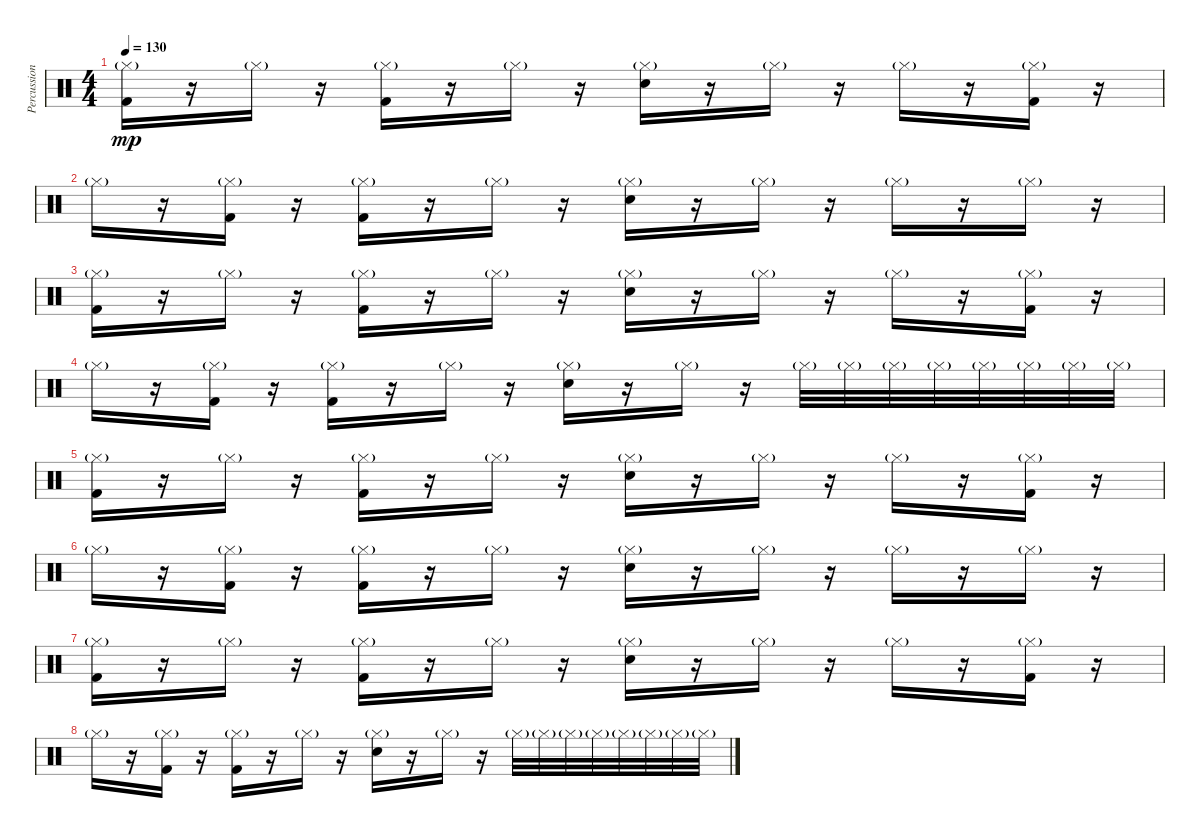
\track ("Percussion" "Percussion") {instrument percussion}
\staff {score}
\articulation defaults
\ts (4 4)
\tempo 130
\clef neutral
\ks c
("Hi-Hat (closed)"{g} "Kick (hit) 2").16{dy mp} r.16 "Hi-Hat (closed)"{g}.16 r.16 ("Hi-Hat (closed)"{g} "Kick (hit) 2").16 r.16 "Hi-Hat (closed)"{g}.16 r.16 ("Hi-Hat (closed)"{g} "Snare (hit) 2").16 r.16 "Hi-Hat (closed)"{g}.16 r.16 "Hi-Hat (closed)"{g}.16 r.16 ("Hi-Hat (closed)"{g} "Kick (hit) 2").16 r.16 |
"Hi-Hat (closed)"{g}.16 r.16 ("Hi-Hat (closed)"{g} "Kick (hit) 2").16 r.16 ("Hi-Hat (closed)"{g} "Kick (hit) 2").16 r.16 "Hi-Hat (closed)"{g}.16 r.16 ("Hi-Hat (closed)"{g} "Snare (hit) 2").16 r.16 "Hi-Hat (closed)"{g}.16 r.16 "Hi-Hat (closed)"{g}.16 r.16 "Hi-Hat (closed)"{g}.16 r.16 |
("Hi-Hat (closed)"{g} "Kick (hit) 2").16 r.16 "Hi-Hat (closed)"{g}.16 r.16 ("Hi-Hat (closed)"{g} "Kick (hit) 2").16 r.16 "Hi-Hat (closed)"{g}.16 r.16 ("Hi-Hat (closed)"{g} "Snare (hit) 2").16 r.16 "Hi-Hat (closed)"{g}.16 r.16 "Hi-Hat (closed)"{g}.16 r.16 ("Hi-Hat (closed)"{g} "Kick (hit) 2").16 r.16 |
"Hi-Hat (closed)"{g}.16 r.16 ("Hi-Hat (closed)"{g} "Kick (hit) 2").16 r.16 ("Hi-Hat (closed)"{g} "Kick (hit) 2").16 r.16 "Hi-Hat (closed)"{g}.16 r.16 ("Hi-Hat (closed)"{g} "Snare (hit) 2").16 r.16 "Hi-Hat (closed)"{g}.16 r.16 "Hi-Hat (closed)"{g}.32 "Hi-Hat (closed)"{g}.32 "Hi-Hat (closed)"{g}.32 "Hi-Hat (closed)"{g}.32 "Hi-Hat (closed)"{g}.32 "Hi-Hat (closed)"{g}.32 "Hi-Hat (closed)"{g}.32 "Hi-Hat (closed)"{g}.32 |
("Hi-Hat (closed)"{g} "Kick (hit) 2").16 r.16 "Hi-Hat (closed)"{g}.16 r.16 ("Hi-Hat (closed)"{g} "Kick (hit) 2").16 r.16 "Hi-Hat (closed)"{g}.16 r.16 ("Hi-Hat (closed)"{g} "Snare (hit) 2").16 r.16 "Hi-Hat (closed)"{g}.16 r.16 "Hi-Hat (closed)"{g}.16 r.16 ("Hi-Hat (closed)"{g} "Kick (hit) 2").16 r.16 |
"Hi-Hat (closed)"{g}.16 r.16 ("Hi-Hat (closed)"{g} "Kick (hit) 2").16 r.16 ("Hi-Hat (closed)"{g} "Kick (hit) 2").16 r.16 "Hi-Hat (closed)"{g}.16 r.16 ("Hi-Hat (closed)"{g} "Snare (hit) 2").16 r.16 "Hi-Hat (closed)"{g}.16 r.16 "Hi-Hat (closed)"{g}.16 r.16 "Hi-Hat (closed)"{g}.16 r.16 |
("Hi-Hat (closed)"{g} "Kick (hit) 2").16 r.16 "Hi-Hat (closed)"{g}.16 r.16 ("Hi-Hat (closed)"{g} "Kick (hit) 2").16 r.16 "Hi-Hat (closed)"{g}.16 r.16 ("Hi-Hat (closed)"{g} "Snare (hit) 2").16 r.16 "Hi-Hat (closed)"{g}.16 r.16 "Hi-Hat (closed)"{g}.16 r.16 ("Hi-Hat (closed)"{g} "Kick (hit) 2").16 r.16 |
"Hi-Hat (closed)"{g}.16 r.16 ("Hi-Hat (closed)"{g} "Kick (hit) 2").16 r.16 ("Hi-Hat (closed)"{g} "Kick (hit) 2").16 r.16 "Hi-Hat (closed)"{g}.16 r.16 ("Hi-Hat (closed)"{g} "Snare (hit) 2").16 r.16 "Hi-Hat (closed)"{g}.16 r.16 "Hi-Hat (closed)"{g}.32 "Hi-Hat (closed)"{g}.32 "Hi-Hat (closed)"{g}.32 "Hi-Hat (closed)"{g}.32 "Hi-Hat (closed)"{g}.32 "Hi-Hat (closed)"{g}.32 "Hi-Hat (closed)"{g}.32 "Hi-Hat (closed)"{g}.32
